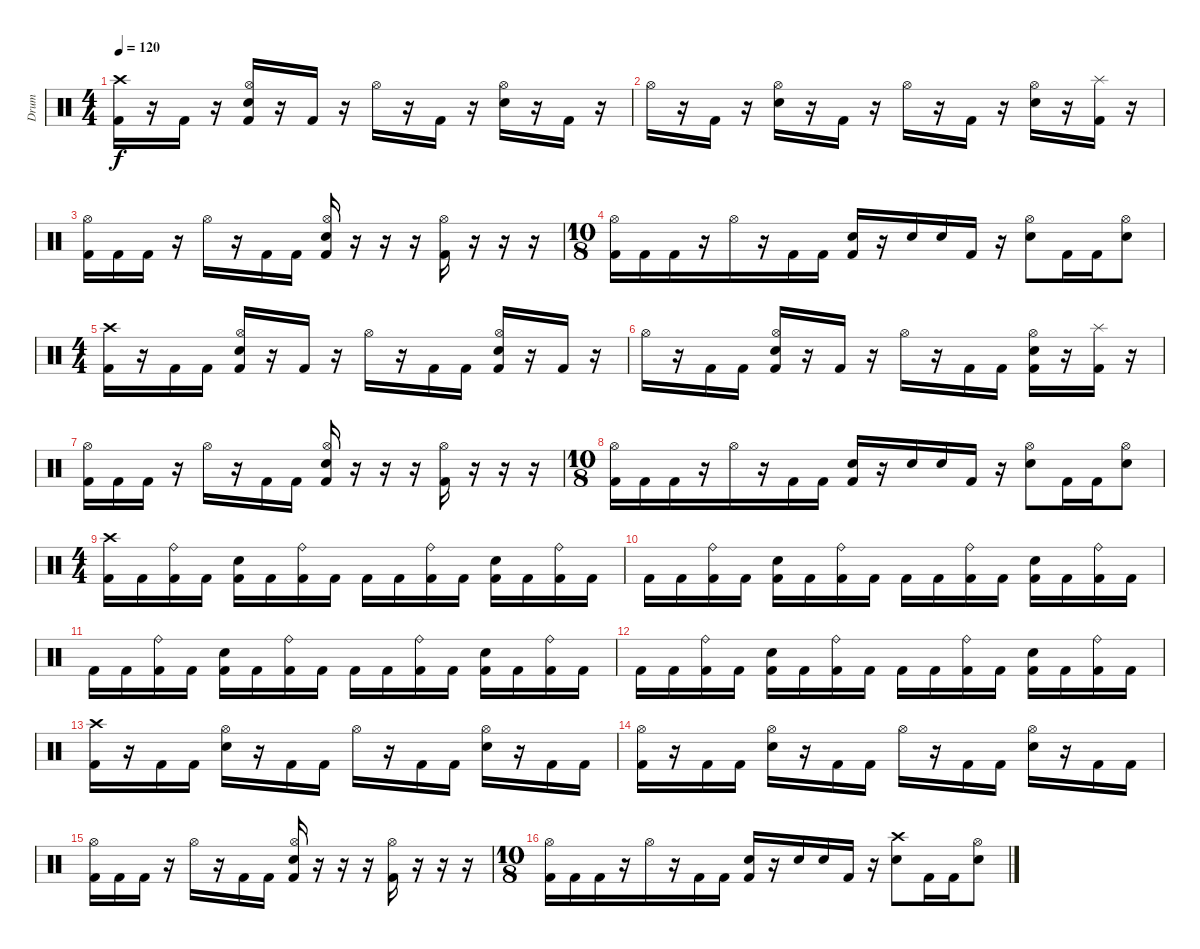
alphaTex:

\track ("Drum" "Drum") {instrument percussion}
\staff {score}
\articulation defaults
\ts (4 4)
\tempo 120
\clef neutral
\ks c
("Crash high (hit)" "Kick (hit) 2").16{dy f} r.16 "Kick (hit) 2".16 r.16 ("Hi-Hat (open)" "Snare (hit) 2" "Kick (hit) 2").16 r.16 "Kick (hit) 2".16 r.16 "Hi-Hat (open)".16 r.16 "Kick (hit) 2".16 r.16 ("Hi-Hat (open)" "Snare (hit) 2").16 r.16 "Kick (hit) 2".16 r.16 |
"Hi-Hat (open)".16 r.16 "Kick (hit) 2".16 r.16 ("Hi-Hat (open)" "Snare (hit) 2").16 r.16 "Kick (hit) 2".16 r.16 "Hi-Hat (open)".16 r.16 "Kick (hit) 2".16 r.16 ("Hi-Hat (open)" "Snare (hit) 2").16 r.16 ("Splash (hit)" "Kick (hit) 2").16 r.16 |
("Hi-Hat (open)" "Kick (hit) 2").16 "Kick (hit) 2".16 "Kick (hit) 2".16 r.16 "Hi-Hat (open)".16 r.16 "Kick (hit) 2".16 "Kick (hit) 2".16 ("Hi-Hat (open)" "Snare (hit) 2" "Kick (hit) 2").16 r.16 r.16 r.16 ("Hi-Hat (open)" "Kick (hit) 2").16 r.16 r.16 r.16 |
\ts (10 8)
("Hi-Hat (open)" "Kick (hit) 2").16 "Kick (hit) 2".16 "Kick (hit) 2".16 r.16 "Hi-Hat (open)".16 r.16 "Kick (hit) 2".16 "Kick (hit) 2".16 ("Snare (hit) 2" "Kick (hit) 2").16 r.16 "Snare (hit) 2".16 "Snare (hit) 2".16 "Kick (hit) 2".16 r.16 ("Hi-Hat (open)" "Snare (hit) 2").8 "Kick (hit) 2".16 "Kick (hit) 2".16 ("Hi-Hat (open)" "Snare (hit) 2").8 |
\ts (4 4)
("Crash high (hit)" "Kick (hit) 2").16 r.16 "Kick (hit) 2".16 "Kick (hit) 2".16 ("Hi-Hat (open)" "Snare (hit) 2" "Kick (hit) 2").16 r.16 "Kick (hit) 2".16 r.16 "Hi-Hat (open)".16 r.16 "Kick (hit) 2".16 "Kick (hit) 2".16 ("Hi-Hat (open)" "Snare (hit) 2" "Kick (hit) 2").16 r.16 "Kick (hit) 2".16 r.16 |
"Hi-Hat (open)".16 r.16 "Kick (hit) 2".16 "Kick (hit) 2".16 ("Hi-Hat (open)" "Snare (hit) 2" "Kick (hit) 2").16 r.16 "Kick (hit) 2".16 r.16 "Hi-Hat (open)".16 r.16 "Kick (hit) 2".16 "Kick (hit) 2".16 ("Hi-Hat (open)" "Snare (hit) 2" "Kick (hit) 2").16 r.16 ("Splash (hit)" "Kick (hit) 2").16 r.16 |
("Hi-Hat (open)" "Kick (hit) 2").16 "Kick (hit) 2".16 "Kick (hit) 2".16 r.16 "Hi-Hat (open)".16 r.16 "Kick (hit) 2".16 "Kick (hit) 2".16 ("Hi-Hat (open)" "Snare (hit) 2" "Kick (hit) 2").16 r.16 r.16 r.16 ("Hi-Hat (open)" "Kick (hit) 2").16 r.16 r.16 r.16 |
\ts (10 8)
("Hi-Hat (open)" "Kick (hit) 2").16 "Kick (hit) 2".16 "Kick (hit) 2".16 r.16 "Hi-Hat (open)".16 r.16 "Kick (hit) 2".16 "Kick (hit) 2".16 ("Snare (hit) 2" "Kick (hit) 2").16 r.16 "Snare (hit) 2".16 "Snare (hit) 2".16 "Kick (hit) 2".16 r.16 ("Hi-Hat (open)" "Snare (hit) 2").8 "Kick (hit) 2".16 "Kick (hit) 2".16 ("Hi-Hat (open)" "Snare (hit) 2").8 |
\ts (4 4)
("Crash high (hit)" "Kick (hit) 2").16 "Kick (hit) 2".16 ("Ride (bell)" "Kick (hit) 2").16 "Kick (hit) 2".16 ("Snare (hit) 2" "Kick (hit) 2").16 "Kick (hit) 2".16 ("Ride (bell)" "Kick (hit) 2").16 "Kick (hit) 2".16 "Kick (hit) 2".16 "Kick (hit) 2".16 ("Ride (bell)" "Kick (hit) 2").16 "Kick (hit) 2".16 ("Snare (hit) 2" "Kick (hit) 2").16 "Kick (hit) 2".16 ("Ride (bell)" "Kick (hit) 2").16 "Kick (hit) 2".16 |
"Kick (hit) 2".16 "Kick (hit) 2".16 ("Ride (bell)" "Kick (hit) 2").16 "Kick (hit) 2".16 ("Snare (hit) 2" "Kick (hit) 2").16 "Kick (hit) 2".16 ("Ride (bell)" "Kick (hit) 2").16 "Kick (hit) 2".16 "Kick (hit) 2".16 "Kick (hit) 2".16 ("Ride (bell)" "Kick (hit) 2").16 "Kick (hit) 2".16 ("Snare (hit) 2" "Kick (hit) 2").16 "Kick (hit) 2".16 ("Ride (bell)" "Kick (hit) 2").16 "Kick (hit) 2".16 |
"Kick (hit) 2".16 "Kick (hit) 2".16 ("Ride (bell)" "Kick (hit) 2").16 "Kick (hit) 2".16 ("Snare (hit) 2" "Kick (hit) 2").16 "Kick (hit) 2".16 ("Ride (bell)" "Kick (hit) 2").16 "Kick (hit) 2".16 "Kick (hit) 2".16 "Kick (hit) 2".16 ("Ride (bell)" "Kick (hit) 2").16 "Kick (hit) 2".16 ("Snare (hit) 2" "Kick (hit) 2").16 "Kick (hit) 2".16 ("Ride (bell)" "Kick (hit) 2").16 "Kick (hit) 2".16 |
"Kick (hit) 2".16 "Kick (hit) 2".16 ("Ride (bell)" "Kick (hit) 2").16 "Kick (hit) 2".16 ("Snare (hit) 2" "Kick (hit) 2").16 "Kick (hit) 2".16 ("Ride (bell)" "Kick (hit) 2").16 "Kick (hit) 2".16 "Kick (hit) 2".16 "Kick (hit) 2".16 ("Ride (bell)" "Kick (hit) 2").16 "Kick (hit) 2".16 ("Snare (hit) 2" "Kick (hit) 2").16 "Kick (hit) 2".16 ("Ride (bell)" "Kick (hit) 2").16 "Kick (hit) 2".16 |
("Crash high (hit)" "Kick (hit) 2").16 r.16 "Kick (hit) 2".16 "Kick (hit) 2".16 ("Hi-Hat (open)" "Snare (hit) 2").16 r.16 "Kick (hit) 2".16 "Kick (hit) 2".16 "Hi-Hat (open)".16 r.16 "Kick (hit) 2".16 "Kick (hit) 2".16 ("Hi-Hat (open)" "Snare (hit) 2").16 r.16 "Kick (hit) 2".16 "Kick (hit) 2".16 |
("Hi-Hat (open)" "Kick (hit) 2").16 r.16 "Kick (hit) 2".16 "Kick (hit) 2".16 ("Hi-Hat (open)" "Snare (hit) 2").16 r.16 "Kick (hit) 2".16 "Kick (hit) 2".16 "Hi-Hat (open)".16 r.16 "Kick (hit) 2".16 "Kick (hit) 2".16 ("Hi-Hat (open)" "Snare (hit) 2").16 r.16 "Kick (hit) 2".16 "Kick (hit) 2".16 |
("Hi-Hat (open)" "Kick (hit) 2").16 "Kick (hit) 2".16 "Kick (hit) 2".16 r.16 "Hi-Hat (open)".16 r.16 "Kick (hit) 2".16 "Kick (hit) 2".16 ("Hi-Hat (open)" "Snare (hit) 2" "Kick (hit) 2").16 r.16 r.16 r.16 ("Hi-Hat (open)" "Kick (hit) 2").16 r.16 r.16 r.16 |
\ts (10 8)
("Hi-Hat (open)" "Kick (hit) 2").16 "Kick (hit) 2".16 "Kick (hit) 2".16 r.16 "Hi-Hat (open)".16 r.16 "Kick (hit) 2".16 "Kick (hit) 2".16 ("Snare (hit) 2" "Kick (hit) 2").16 r.16 "Snare (hit) 2".16 "Snare (hit) 2".16 "Kick (hit) 2".16 r.16 ("Crash high (hit)" "Snare (hit) 2").8 "Kick (hit) 2".16 "Kick (hit) 2".16 ("Hi-Hat (open)" "Snare (hit) 2").8
